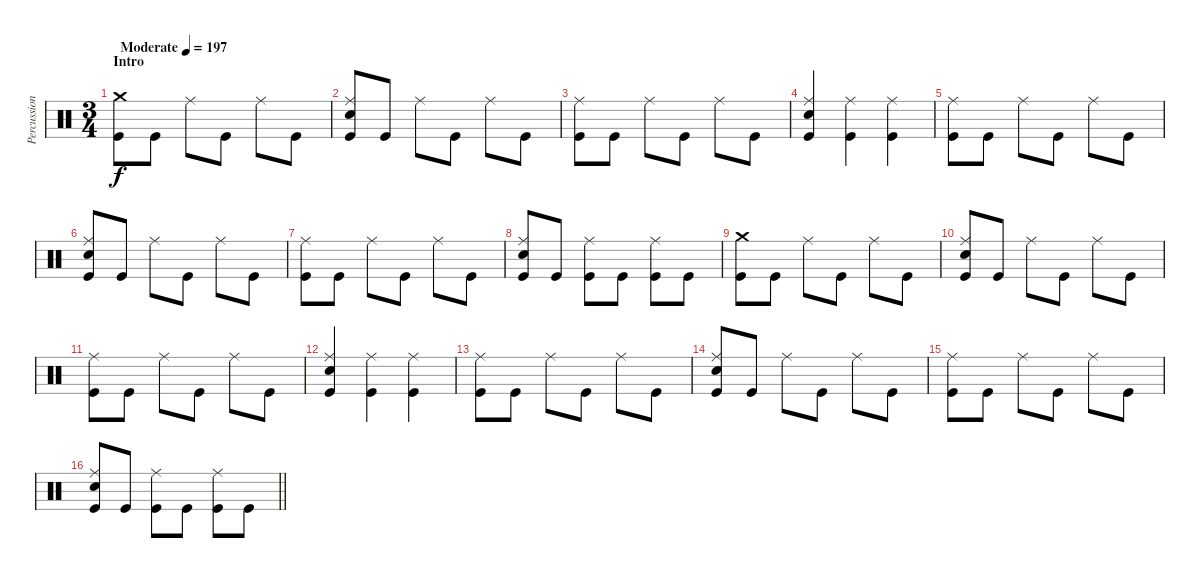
\track ("Percussion" "Percussion") {instrument percussion}
\staff {score}
\articulation defaults
\ts (3 4)
\section ("" "Intro")
\tempo (197 "Moderate")
\clef neutral
\ks c
("Crash medium (hit)" "Kick (hit)").8{dy f} "Kick (hit)".8 "Ride (middle)".8 "Kick (hit)".8 "Ride (middle)".8 "Kick (hit)".8 |
("Ride (middle)" "Electric Snare (hit)" "Kick (hit)").8 "Kick (hit)".8 "Ride (middle)".8 "Kick (hit)".8 "Ride (middle)".8 "Kick (hit)".8 |
("Ride (middle)" "Kick (hit)").8 "Kick (hit)".8 "Ride (middle)".8 "Kick (hit)".8 "Ride (middle)".8 "Kick (hit)".8 |
("Ride (middle)" "Electric Snare (hit)" "Kick (hit)").4 ("Ride (middle)" "Kick (hit)").4 ("Ride (middle)" "Kick (hit)").4 |
("Ride (middle)" "Kick (hit)").8 "Kick (hit)".8 "Ride (middle)".8 "Kick (hit)".8 "Ride (middle)".8 "Kick (hit)".8 |
("Ride (middle)" "Electric Snare (hit)" "Kick (hit)").8 "Kick (hit)".8 "Ride (middle)".8 "Kick (hit)".8 "Ride (middle)".8 "Kick (hit)".8 |
("Ride (middle)" "Kick (hit)").8 "Kick (hit)".8 "Ride (middle)".8 "Kick (hit)".8 "Ride (middle)".8 "Kick (hit)".8 |
("Ride (middle)" "Electric Snare (hit)" "Kick (hit)").8 "Kick (hit)".8 ("Ride (middle)" "Kick (hit)").8 "Kick (hit)".8 ("Ride (middle)" "Kick (hit)").8 "Kick (hit)".8 |
("Crash medium (hit)" "Kick (hit)").8 "Kick (hit)".8 "Ride (middle)".8 "Kick (hit)".8 "Ride (middle)".8 "Kick (hit)".8 |
("Ride (middle)" "Electric Snare (hit)" "Kick (hit)").8 "Kick (hit)".8 "Ride (middle)".8 "Kick (hit)".8 "Ride (middle)".8 "Kick (hit)".8 |
("Ride (middle)" "Kick (hit)").8 "Kick (hit)".8 "Ride (middle)".8 "Kick (hit)".8 "Ride (middle)".8 "Kick (hit)".8 |
("Ride (middle)" "Electric Snare (hit)" "Kick (hit)").4 ("Ride (middle)" "Kick (hit)").4 ("Ride (middle)" "Kick (hit)").4 |
("Ride (middle)" "Kick (hit)").8 "Kick (hit)".8 "Ride (middle)".8 "Kick (hit)".8 "Ride (middle)".8 "Kick (hit)".8 |
("Ride (middle)" "Electric Snare (hit)" "Kick (hit)").8 "Kick (hit)".8 "Ride (middle)".8 "Kick (hit)".8 "Ride (middle)".8 "Kick (hit)".8 |
("Ride (middle)" "Kick (hit)").8 "Kick (hit)".8 "Ride (middle)".8 "Kick (hit)".8 "Ride (middle)".8 "Kick (hit)".8 |
\barLineRight lightlight
("Ride (middle)" "Electric Snare (hit)" "Kick (hit)").8 "Kick (hit)".8 ("Ride (middle)" "Kick (hit)").8 "Kick (hit)".8 ("Ride (middle)" "Kick (hit)").8 "Kick (hit)".8
